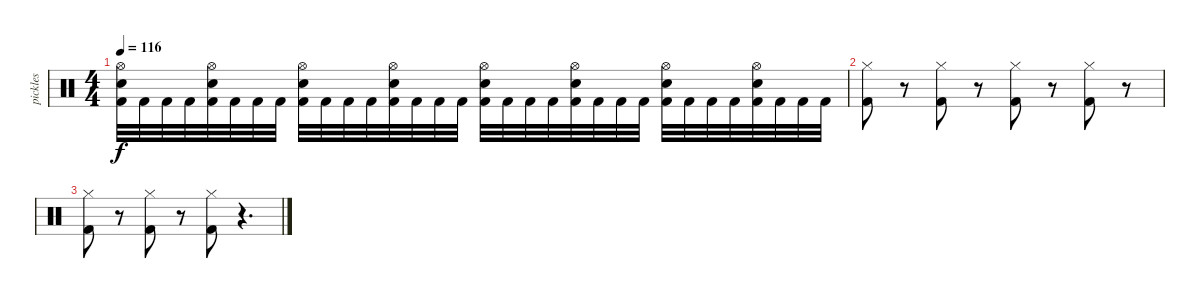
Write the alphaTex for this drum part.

\track ("pickles" "pickles") {instrument percussion}
\staff {score}
\articulation defaults
\ts (4 4)
\tempo 116
\clef neutral
\ks c
("Hi-Hat (open)" "Snare (hit) 2" "Kick (hit) 2").32{dy f} "Kick (hit) 2".32 "Kick (hit) 2".32 "Kick (hit) 2".32 ("Hi-Hat (open)" "Snare (hit) 2" "Kick (hit) 2").32 "Kick (hit) 2".32 "Kick (hit) 2".32 "Kick (hit) 2".32 ("Hi-Hat (open)" "Snare (hit) 2" "Kick (hit) 2").32 "Kick (hit) 2".32 "Kick (hit) 2".32 "Kick (hit) 2".32 ("Hi-Hat (open)" "Snare (hit) 2" "Kick (hit) 2").32 "Kick (hit) 2".32 "Kick (hit) 2".32 "Kick (hit) 2".32 ("Hi-Hat (open)" "Snare (hit) 2" "Kick (hit) 2").32 "Kick (hit) 2".32 "Kick (hit) 2".32 "Kick (hit) 2".32 ("Hi-Hat (open)" "Snare (hit) 2" "Kick (hit) 2").32 "Kick (hit) 2".32 "Kick (hit) 2".32 "Kick (hit) 2".32 ("Hi-Hat (open)" "Snare (hit) 2" "Kick (hit) 2").32 "Kick (hit) 2".32 "Kick (hit) 2".32 "Kick (hit) 2".32 ("Hi-Hat (open)" "Snare (hit) 2" "Kick (hit) 2").32 "Kick (hit) 2".32 "Kick (hit) 2".32 "Kick (hit) 2".32 |
("Hi-Hat (closed)" "Kick (hit) 2").8 r.8 ("Hi-Hat (closed)" "Kick (hit) 2").8 r.8 ("Hi-Hat (closed)" "Kick (hit) 2").8 r.8 ("Hi-Hat (closed)" "Kick (hit) 2").8 r.8 |
("Hi-Hat (closed)" "Kick (hit) 2").8 r.8 ("Hi-Hat (closed)" "Kick (hit) 2").8 r.8 ("Hi-Hat (closed)" "Kick (hit) 2").8 r.4{d}
